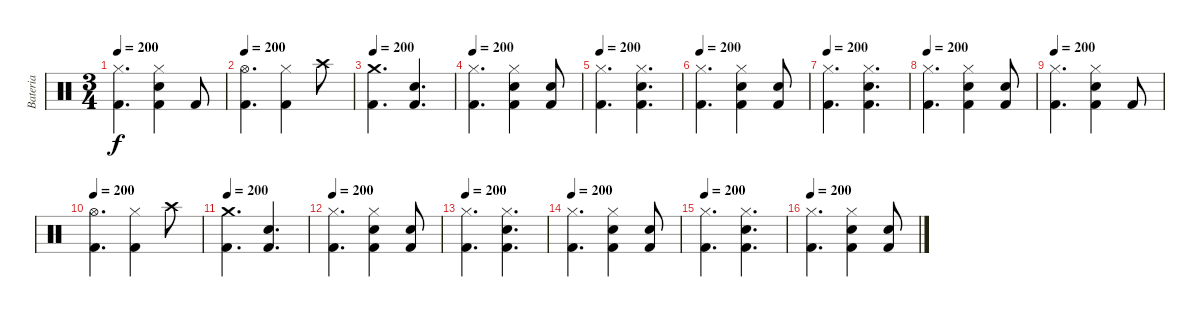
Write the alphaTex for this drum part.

\track ("Bateria" "Bateria") {instrument percussion}
\staff {score}
\articulation defaults
\ts (3 4)
\tempo 200
\clef neutral
\ks c
("Hi-Hat (closed)" "Kick (hit) 2").4{d dy f} ("Hi-Hat (closed)" "Electric Snare (hit)" "Kick (hit) 2").4 "Kick (hit) 2".8 |
\tempo 200
("Hi-Hat (open)" "Kick (hit) 2").4{d} ("Hi-Hat (closed)" "Kick (hit) 2").4 "Crash high (hit)".8 |
\tempo 200
("Crash medium (hit)" "Kick (hit) 2").4{d} ("Electric Snare (hit)" "Kick (hit) 2").4{d} |
\tempo 200
("Hi-Hat (closed)" "Kick (hit) 2").4{d} ("Hi-Hat (closed)" "Electric Snare (hit)" "Kick (hit) 2").4 ("Electric Snare (hit)" "Kick (hit) 2").8 |
\tempo 200
("Hi-Hat (closed)" "Kick (hit) 2").4{d} ("Hi-Hat (closed)" "Electric Snare (hit)" "Kick (hit) 2").4{d} |
\tempo 200
("Hi-Hat (closed)" "Kick (hit) 2").4{d} ("Hi-Hat (closed)" "Electric Snare (hit)" "Kick (hit) 2").4 ("Electric Snare (hit)" "Kick (hit) 2").8 |
\tempo 200
("Hi-Hat (closed)" "Kick (hit) 2").4{d} ("Hi-Hat (closed)" "Electric Snare (hit)" "Kick (hit) 2").4{d} |
\tempo 200
("Hi-Hat (closed)" "Kick (hit) 2").4{d} ("Hi-Hat (closed)" "Electric Snare (hit)" "Kick (hit) 2").4 ("Electric Snare (hit)" "Kick (hit) 2").8 |
\tempo 200
("Hi-Hat (closed)" "Kick (hit) 2").4{d} ("Hi-Hat (closed)" "Electric Snare (hit)" "Kick (hit) 2").4 "Kick (hit) 2".8 |
\tempo 200
("Hi-Hat (open)" "Kick (hit) 2").4{d} ("Hi-Hat (closed)" "Kick (hit) 2").4 "Crash high (hit)".8 |
\tempo 200
("Crash medium (hit)" "Kick (hit) 2").4{d} ("Electric Snare (hit)" "Kick (hit) 2").4{d} |
\tempo 200
("Hi-Hat (closed)" "Kick (hit) 2").4{d} ("Hi-Hat (closed)" "Electric Snare (hit)" "Kick (hit) 2").4 ("Electric Snare (hit)" "Kick (hit) 2").8 |
\tempo 200
("Hi-Hat (closed)" "Kick (hit) 2").4{d} ("Hi-Hat (closed)" "Electric Snare (hit)" "Kick (hit) 2").4{d} |
\tempo 200
("Hi-Hat (closed)" "Kick (hit) 2").4{d} ("Hi-Hat (closed)" "Electric Snare (hit)" "Kick (hit) 2").4 ("Electric Snare (hit)" "Kick (hit) 2").8 |
\tempo 200
("Hi-Hat (closed)" "Kick (hit) 2").4{d} ("Hi-Hat (closed)" "Electric Snare (hit)" "Kick (hit) 2").4{d} |
\tempo 200
("Hi-Hat (closed)" "Kick (hit) 2").4{d} ("Hi-Hat (closed)" "Electric Snare (hit)" "Kick (hit) 2").4 ("Electric Snare (hit)" "Kick (hit) 2").8
